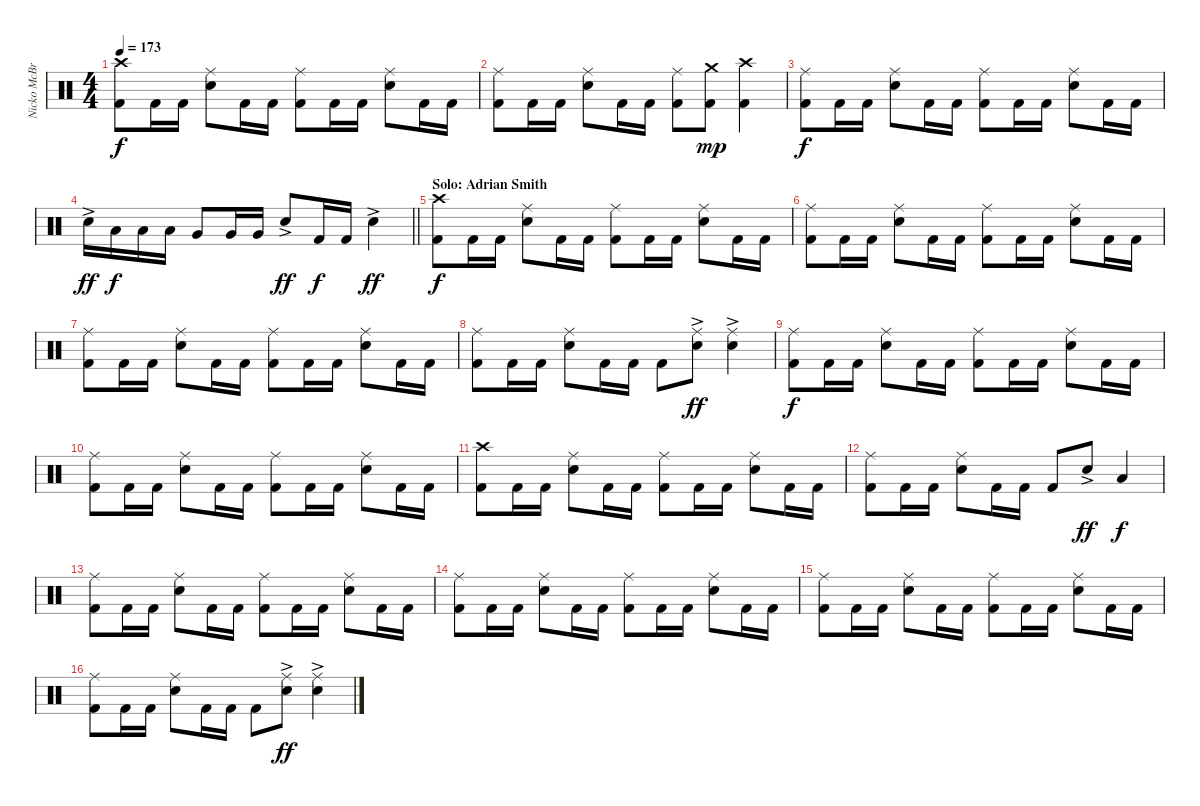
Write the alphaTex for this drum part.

\track ("Nicko McBrain" "Nicko McBr") {instrument percussion}
\staff {score}
\articulation defaults
\ts (4 4)
\tempo 173
\clef neutral
\ks c
("Crash high (hit)" "Kick (hit) 2").8{dy f} "Kick (hit) 2".16 "Kick (hit) 2".16 ("Ride (middle)" "Electric Snare (hit)").8 "Kick (hit) 2".16 "Kick (hit) 2".16 ("Ride (middle)" "Kick (hit) 2").8 "Kick (hit) 2".16 "Kick (hit) 2".16 ("Ride (middle)" "Electric Snare (hit)").8 "Kick (hit) 2".16 "Kick (hit) 2".16 |
("Ride (middle)" "Kick (hit) 2").8 "Kick (hit) 2".16 "Kick (hit) 2".16 ("Ride (middle)" "Electric Snare (hit)").8 "Kick (hit) 2".16 "Kick (hit) 2".16 ("Ride (middle)" "Kick (hit) 2").8 ("Crash medium (hit)" "Kick (hit) 2").8{dy mp} ("Crash high (hit)" "Kick (hit) 2").4 |
("Ride (middle)" "Kick (hit) 2").8{dy f} "Kick (hit) 2".16 "Kick (hit) 2".16 ("Ride (middle)" "Electric Snare (hit)").8 "Kick (hit) 2".16 "Kick (hit) 2".16 ("Ride (middle)" "Kick (hit) 2").8 "Kick (hit) 2".16 "Kick (hit) 2".16 ("Ride (middle)" "Electric Snare (hit)").8 "Kick (hit) 2".16 "Kick (hit) 2".16 |
\barLineRight lightlight "Electric Snare (hit)"{ac}.16{dy ff} "Low Tom (hit)".16{dy f} "Low Tom (hit)".16 "Low Tom (hit)".16 "Very Low Tom (hit)".8 "Very Low Tom (hit)".16 "Very Low Tom (hit)".16 "Electric Snare (hit)"{ac}.8{dy ff} "Kick (hit) 2".16{dy f} "Kick (hit) 2".16 "Electric Snare (hit)"{ac}.4{dy ff}
|
\section ("" "Solo: Adrian Smith")
("Crash high (hit)" "Kick (hit) 2").8{dy f} "Kick (hit) 2".16 "Kick (hit) 2".16 ("Ride (middle)" "Electric Snare (hit)").8 "Kick (hit) 2".16 "Kick (hit) 2".16 ("Ride (middle)" "Kick (hit) 2").8 "Kick (hit) 2".16 "Kick (hit) 2".16 ("Ride (middle)" "Electric Snare (hit)").8 "Kick (hit) 2".16 "Kick (hit) 2".16 |
("Ride (middle)" "Kick (hit) 2").8 "Kick (hit) 2".16 "Kick (hit) 2".16 ("Ride (middle)" "Electric Snare (hit)").8 "Kick (hit) 2".16 "Kick (hit) 2".16 ("Ride (middle)" "Kick (hit) 2").8 "Kick (hit) 2".16 "Kick (hit) 2".16 ("Ride (middle)" "Electric Snare (hit)").8 "Kick (hit) 2".16 "Kick (hit) 2".16 |
("Ride (middle)" "Kick (hit) 2").8 "Kick (hit) 2".16 "Kick (hit) 2".16 ("Ride (middle)" "Electric Snare (hit)").8 "Kick (hit) 2".16 "Kick (hit) 2".16 ("Ride (middle)" "Kick (hit) 2").8 "Kick (hit) 2".16 "Kick (hit) 2".16 ("Ride (middle)" "Electric Snare (hit)").8 "Kick (hit) 2".16 "Kick (hit) 2".16 |
("Ride (middle)" "Kick (hit) 2").8 "Kick (hit) 2".16 "Kick (hit) 2".16 ("Ride (middle)" "Electric Snare (hit)").8 "Kick (hit) 2".16 "Kick (hit) 2".16 "Kick (hit) 2".8 ("Ride (middle)"{ac} "Electric Snare (hit)"{ac}).8{dy ff} ("Ride (middle)"{ac} "Electric Snare (hit)"{ac}).4 |
("Ride (middle)" "Kick (hit) 2").8{dy f} "Kick (hit) 2".16 "Kick (hit) 2".16 ("Ride (middle)" "Electric Snare (hit)").8 "Kick (hit) 2".16 "Kick (hit) 2".16 ("Ride (middle)" "Kick (hit) 2").8 "Kick (hit) 2".16 "Kick (hit) 2".16 ("Ride (middle)" "Electric Snare (hit)").8 "Kick (hit) 2".16 "Kick (hit) 2".16 |
("Ride (middle)" "Kick (hit) 2").8 "Kick (hit) 2".16 "Kick (hit) 2".16 ("Ride (middle)" "Electric Snare (hit)").8 "Kick (hit) 2".16 "Kick (hit) 2".16 ("Ride (middle)" "Kick (hit) 2").8 "Kick (hit) 2".16 "Kick (hit) 2".16 ("Ride (middle)" "Electric Snare (hit)").8 "Kick (hit) 2".16 "Kick (hit) 2".16 |
("Crash high (hit)" "Kick (hit) 2").8 "Kick (hit) 2".16 "Kick (hit) 2".16 ("Ride (middle)" "Electric Snare (hit)").8 "Kick (hit) 2".16 "Kick (hit) 2".16 ("Ride (middle)" "Kick (hit) 2").8 "Kick (hit) 2".16 "Kick (hit) 2".16 ("Ride (middle)" "Electric Snare (hit)").8 "Kick (hit) 2".16 "Kick (hit) 2".16 |
("Ride (middle)" "Kick (hit) 2").8 "Kick (hit) 2".16 "Kick (hit) 2".16 ("Ride (middle)" "Electric Snare (hit)").8 "Kick (hit) 2".16 "Kick (hit) 2".16 "Kick (hit) 2".8 "Electric Snare (hit)"{ac}.8{dy ff} "Low Tom (hit)".4{dy f} |
("Ride (middle)" "Kick (hit) 2").8 "Kick (hit) 2".16 "Kick (hit) 2".16 ("Ride (middle)" "Electric Snare (hit)").8 "Kick (hit) 2".16 "Kick (hit) 2".16 ("Ride (middle)" "Kick (hit) 2").8 "Kick (hit) 2".16 "Kick (hit) 2".16 ("Ride (middle)" "Electric Snare (hit)").8 "Kick (hit) 2".16 "Kick (hit) 2".16 |
("Ride (middle)" "Kick (hit) 2").8 "Kick (hit) 2".16 "Kick (hit) 2".16 ("Ride (middle)" "Electric Snare (hit)").8 "Kick (hit) 2".16 "Kick (hit) 2".16 ("Ride (middle)" "Kick (hit) 2").8 "Kick (hit) 2".16 "Kick (hit) 2".16 ("Ride (middle)" "Electric Snare (hit)").8 "Kick (hit) 2".16 "Kick (hit) 2".16 |
("Ride (middle)" "Kick (hit) 2").8 "Kick (hit) 2".16 "Kick (hit) 2".16 ("Ride (middle)" "Electric Snare (hit)").8 "Kick (hit) 2".16 "Kick (hit) 2".16 ("Ride (middle)" "Kick (hit) 2").8 "Kick (hit) 2".16 "Kick (hit) 2".16 ("Ride (middle)" "Electric Snare (hit)").8 "Kick (hit) 2".16 "Kick (hit) 2".16 |
("Ride (middle)" "Kick (hit) 2").8 "Kick (hit) 2".16 "Kick (hit) 2".16 ("Ride (middle)" "Electric Snare (hit)").8 "Kick (hit) 2".16 "Kick (hit) 2".16 "Kick (hit) 2".8 ("Ride (middle)"{ac} "Electric Snare (hit)"{ac}).8{dy ff} ("Ride (middle)"{ac} "Electric Snare (hit)"{ac}).4
